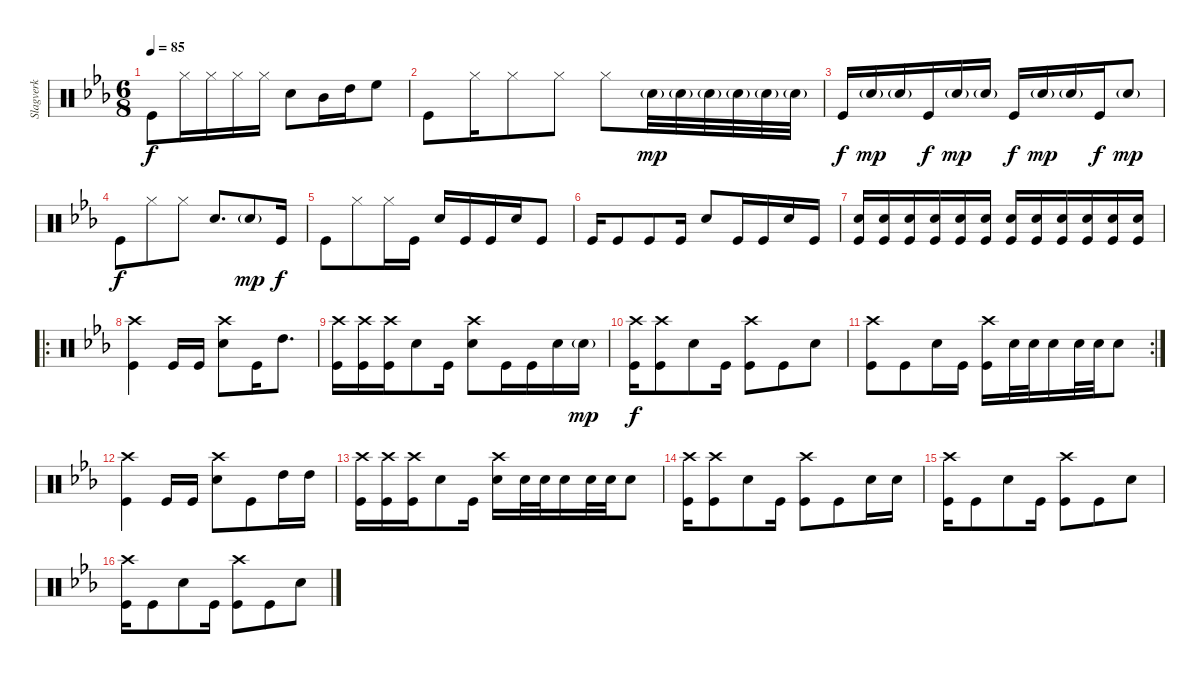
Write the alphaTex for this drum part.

\track ("Slagverk" "Slagverk") {instrument percussion}
\staff {score}
\articulation defaults
\ts (6 8)
\tempo 85
\clef neutral
\ks eb "Kick (hit)".8{dy f} "Hi-Hat (closed)".16 "Hi-Hat (closed)".16 "Hi-Hat (closed)".16 "Hi-Hat (closed)".16 "Snare (hit) 2".8 "Mid Tom (hit)".16 "High Tom (hit)".16 "High Floor Tom (hit)".8
|
"Kick (hit)".8 "Hi-Hat (closed)".16 "Hi-Hat (closed)".8 "Hi-Hat (closed)".8 "Hi-Hat (closed)".8 "Snare (hit) 2"{g}.32{dy mp} "Snare (hit) 2"{g}.32 "Snare (hit) 2"{g}.32 "Snare (hit) 2"{g}.32 "Snare (hit) 2"{g}.32 "Snare (hit) 2"{g}.32 |
"Kick (hit)".16{dy f} "Snare (hit) 2"{g}.16{dy mp} "Snare (hit) 2"{g}.16 "Kick (hit)".16{dy f} "Snare (hit) 2"{g}.16{dy mp} "Snare (hit) 2"{g}.16 "Kick (hit)".16{dy f} "Snare (hit) 2"{g}.16{dy mp} "Snare (hit) 2"{g}.16 "Kick (hit)".16{dy f} "Snare (hit) 2"{g}.8{dy mp} |
"Kick (hit)".8{dy f} "Hi-Hat (closed)".8 "Hi-Hat (closed)".8 "Snare (hit) 2".8{d} "Snare (hit) 2"{g}.8{dy mp} "Kick (hit)".16{dy f} |
"Kick (hit)".8 "Hi-Hat (closed)".8 "Hi-Hat (closed)".16 "Kick (hit)".16 "Snare (hit) 2".16 "Kick (hit)".16 "Kick (hit)".16 "Snare (hit) 2".16 "Kick (hit)".8 |
"Kick (hit)".16 "Kick (hit)".8 "Kick (hit)".8 "Kick (hit)".16 "Snare (hit) 2".8 "Kick (hit)".16 "Kick (hit)".16 "Snare (hit) 2".16 "Kick (hit)".16 |
("Snare (hit) 2" "Kick (hit)").16 ("Snare (hit) 2" "Kick (hit)").16 ("Snare (hit) 2" "Kick (hit)").16 ("Snare (hit) 2" "Kick (hit)").16 ("Snare (hit) 2" "Kick (hit)").16 ("Snare (hit) 2" "Kick (hit)").16 ("Snare (hit) 2" "Kick (hit)").16 ("Snare (hit) 2" "Kick (hit)").16 ("Snare (hit) 2" "Kick (hit)").16 ("Snare (hit) 2" "Kick (hit)").16 ("Snare (hit) 2" "Kick (hit)").16 ("Snare (hit) 2" "Kick (hit)").16 |
\ro
("Crash high (hit)" "Kick (hit)").4 "Kick (hit)".16 "Kick (hit)".16 ("Crash high (hit)" "Snare (hit) 2").8 "Kick (hit)".16 "High Tom (hit)".8{d} |
("Crash high (hit)" "Kick (hit)").16 ("Crash high (hit)" "Kick (hit)").16 ("Crash high (hit)" "Kick (hit)").16 "Snare (hit) 2".8 "Kick (hit)".16 ("Crash high (hit)" "Snare (hit) 2").8 "Kick (hit)".16 "Kick (hit)".16 "Snare (hit) 2".16 "Snare (hit) 2"{g}.16{dy mp} |
("Crash high (hit)" "Kick (hit)").16{dy f} ("Crash high (hit)" "Kick (hit)").8 "Snare (hit) 2".8 "Kick (hit)".16 ("Crash high (hit)" "Kick (hit)").8 "Kick (hit)".8 "Snare (hit) 2".8 |
\rc 2
("Crash high (hit)" "Kick (hit)").8 "Kick (hit)".8 "Snare (hit) 2".16 "Kick (hit)".16 ("Crash high (hit)" "Kick (hit)").16 "Snare (hit) 2".32 "Snare (hit) 2".32 "Snare (hit) 2".16 "Snare (hit) 2".32 "Snare (hit) 2".32 "Snare (hit) 2".8 |
("Crash high (hit)" "Kick (hit)").4 "Kick (hit)".16 "Kick (hit)".16 ("Crash high (hit)" "Snare (hit) 2").8 "Kick (hit)".8 "High Tom (hit)".16 "High Tom (hit)".16 |
("Crash high (hit)" "Kick (hit)").16 ("Crash high (hit)" "Kick (hit)").16 ("Crash high (hit)" "Kick (hit)").16 "Snare (hit) 2".8 "Kick (hit)".16 ("Crash high (hit)" "Snare (hit) 2").16 "Snare (hit) 2".32 "Snare (hit) 2".32 "Snare (hit) 2".16 "Snare (hit) 2".32 "Snare (hit) 2".32 "Snare (hit) 2".8 |
("Crash high (hit)" "Kick (hit)").16 ("Crash high (hit)" "Kick (hit)").8 "Snare (hit) 2".8 "Kick (hit)".16 ("Crash high (hit)" "Kick (hit)").8 "Kick (hit)".8 "Snare (hit) 2".16 "Snare (hit) 2".16 |
("Crash high (hit)" "Kick (hit)").16 "Kick (hit)".8 "Snare (hit) 2".8 "Kick (hit)".16 ("Crash high (hit)" "Kick (hit)").8 "Kick (hit)".8 "Snare (hit) 2".8 |
("Crash high (hit)" "Kick (hit)").16 "Kick (hit)".8 "Snare (hit) 2".8 "Kick (hit)".16 ("Crash high (hit)" "Kick (hit)").8 "Kick (hit)".8 "Snare (hit) 2".8
